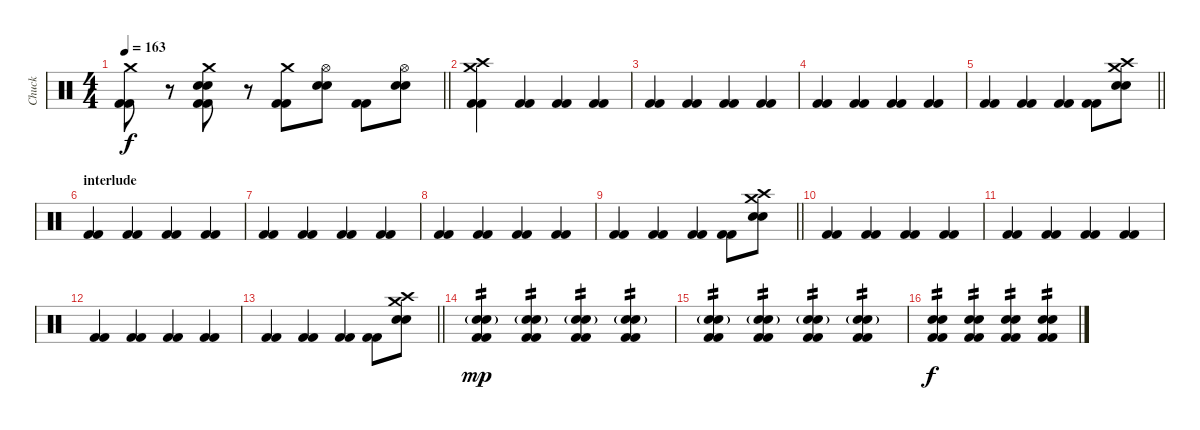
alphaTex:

\track ("Chuck" "Chuck") {instrument percussion}
\staff {score}
\articulation defaults
\ts (4 4)
\tempo 163
\clef neutral
\barLineRight lightlight
\ks c
("Crash medium (hit)" "Kick (hit) 2" "Kick (hit) 2").8{dy f} r.8 ("Crash medium (hit)" "Snare (hit) 2" "Snare (hit) 2" "Kick (hit) 2" "Kick (hit) 2").8 r.8 ("Crash medium (hit)" "Kick (hit) 2" "Kick (hit) 2").8 ("Hi-Hat (open)" "Snare (hit) 2" "Snare (hit) 2").8 ("Kick (hit) 2" "Kick (hit) 2").8 ("Hi-Hat (open)" "Snare (hit) 2" "Snare (hit) 2").8 |
("Kick (hit) 2" "Kick (hit) 2" "Crash high (hit)" "Crash medium (hit)").4 ("Kick (hit) 2" "Kick (hit) 2").4 ("Kick (hit) 2" "Kick (hit) 2").4 ("Kick (hit) 2" "Kick (hit) 2").4 |
("Kick (hit) 2" "Kick (hit) 2").4 ("Kick (hit) 2" "Kick (hit) 2").4 ("Kick (hit) 2" "Kick (hit) 2").4 ("Kick (hit) 2" "Kick (hit) 2").4 |
("Kick (hit) 2" "Kick (hit) 2").4 ("Kick (hit) 2" "Kick (hit) 2").4 ("Kick (hit) 2" "Kick (hit) 2").4 ("Kick (hit) 2" "Kick (hit) 2").4 |
\barLineRight lightlight
("Kick (hit) 2" "Kick (hit) 2").4 ("Kick (hit) 2" "Kick (hit) 2").4 ("Kick (hit) 2" "Kick (hit) 2").4 ("Kick (hit) 2" "Kick (hit) 2").8 ("Snare (hit) 2" "Snare (hit) 2" "Crash medium (hit)" "Crash high (hit)").8 |
\section ("" "interlude")
("Kick (hit) 2" "Kick (hit) 2").4 ("Kick (hit) 2" "Kick (hit) 2").4 ("Kick (hit) 2" "Kick (hit) 2").4 ("Kick (hit) 2" "Kick (hit) 2").4 |
("Kick (hit) 2" "Kick (hit) 2").4 ("Kick (hit) 2" "Kick (hit) 2").4 ("Kick (hit) 2" "Kick (hit) 2").4 ("Kick (hit) 2" "Kick (hit) 2").4 |
("Kick (hit) 2" "Kick (hit) 2").4 ("Kick (hit) 2" "Kick (hit) 2").4 ("Kick (hit) 2" "Kick (hit) 2").4 ("Kick (hit) 2" "Kick (hit) 2").4 |
\barLineRight lightlight
("Kick (hit) 2" "Kick (hit) 2").4 ("Kick (hit) 2" "Kick (hit) 2").4 ("Kick (hit) 2" "Kick (hit) 2").4 ("Kick (hit) 2" "Kick (hit) 2").8 ("Snare (hit) 2" "Snare (hit) 2" "Crash medium (hit)" "Crash high (hit)").8 |
("Kick (hit) 2" "Kick (hit) 2").4 ("Kick (hit) 2" "Kick (hit) 2").4 ("Kick (hit) 2" "Kick (hit) 2").4 ("Kick (hit) 2" "Kick (hit) 2").4 |
("Kick (hit) 2" "Kick (hit) 2").4 ("Kick (hit) 2" "Kick (hit) 2").4 ("Kick (hit) 2" "Kick (hit) 2").4 ("Kick (hit) 2" "Kick (hit) 2").4 |
("Kick (hit) 2" "Kick (hit) 2").4 ("Kick (hit) 2" "Kick (hit) 2").4 ("Kick (hit) 2" "Kick (hit) 2").4 ("Kick (hit) 2" "Kick (hit) 2").4 |
\barLineRight lightlight
("Kick (hit) 2" "Kick (hit) 2").4 ("Kick (hit) 2" "Kick (hit) 2").4 ("Kick (hit) 2" "Kick (hit) 2").4 ("Kick (hit) 2" "Kick (hit) 2").8 ("Snare (hit) 2" "Snare (hit) 2" "Crash medium (hit)" "Crash high (hit)").8 |
("Kick (hit) 2" "Kick (hit) 2" "Snare (hit) 2"{g} "Snare (hit) 2"{g}).4{tp 2 dy mp} ("Kick (hit) 2" "Kick (hit) 2" "Snare (hit) 2"{g} "Snare (hit) 2"{g}).4{tp 2} ("Kick (hit) 2" "Kick (hit) 2" "Snare (hit) 2"{g} "Snare (hit) 2"{g}).4{tp 2} ("Kick (hit) 2" "Kick (hit) 2" "Snare (hit) 2"{g} "Snare (hit) 2"{g}).4{tp 2} |
("Kick (hit) 2" "Kick (hit) 2" "Snare (hit) 2"{g} "Snare (hit) 2"{g}).4{tp 2} ("Kick (hit) 2" "Kick (hit) 2" "Snare (hit) 2"{g} "Snare (hit) 2"{g}).4{tp 2} ("Kick (hit) 2" "Kick (hit) 2" "Snare (hit) 2"{g} "Snare (hit) 2"{g}).4{tp 2} ("Kick (hit) 2" "Kick (hit) 2" "Snare (hit) 2"{g} "Snare (hit) 2"{g}).4{tp 2} |
("Kick (hit) 2" "Kick (hit) 2" "Snare (hit) 2" "Snare (hit) 2").4{tp 2 dy f} ("Kick (hit) 2" "Kick (hit) 2" "Snare (hit) 2" "Snare (hit) 2").4{tp 2} ("Kick (hit) 2" "Kick (hit) 2" "Snare (hit) 2" "Snare (hit) 2").4{tp 2} ("Kick (hit) 2" "Kick (hit) 2" "Snare (hit) 2" "Snare (hit) 2").4{tp 2}
